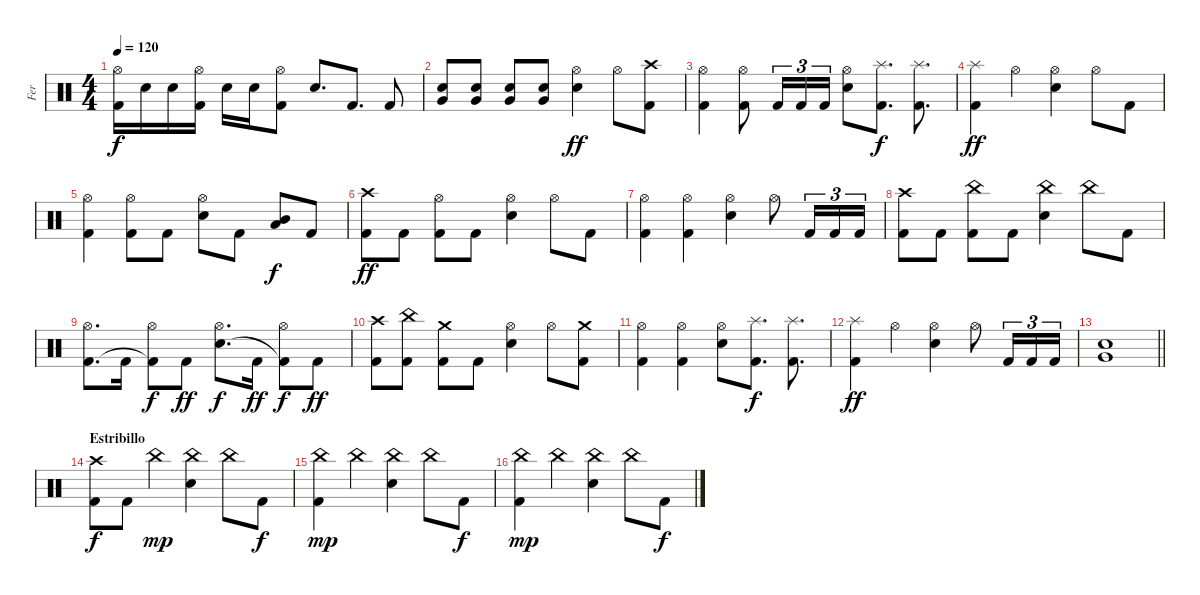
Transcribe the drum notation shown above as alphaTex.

\track ("Fer" "Fer") {instrument percussion}
\staff {score}
\articulation defaults
\ts (4 4)
\tempo 120
\clef neutral
\ks c
("Hi-Hat (open)" "Kick (hit) 2").16{dy f} "Snare (hit) 2".16 "Snare (hit) 2".16 ("Hi-Hat (open)" "Kick (hit) 2").16 "Snare (hit) 2".16 "Snare (hit) 2".16 ("Hi-Hat (open)" "Kick (hit) 2").8 "Snare (hit) 2".8{d} "Kick (hit) 2".8{d} "Kick (hit) 2".8 |
("Snare (hit) 2" "Very Low Tom (hit)").8 ("Snare (hit) 2" "Very Low Tom (hit)").8 ("Snare (hit) 2" "Very Low Tom (hit)").8 ("Snare (hit) 2" "Very Low Tom (hit)").8 ("Hi-Hat (open)" "Snare (hit) 2").4{dy ff} "Hi-Hat (open)".8 ("Crash high (hit)" "Kick (hit) 2").8 |
("Hi-Hat (open)" "Kick (hit) 2").4 ("Hi-Hat (open)" "Kick (hit) 2").8 "Kick (hit) 2".16{tu (3 2)} "Kick (hit) 2".16{tu (3 2)} "Kick (hit) 2".16{tu (3 2)} ("Hi-Hat (open)" "Snare (hit) 2").8 ("Splash (hit)" "Kick (hit) 2").8{d dy f} ("Splash (hit)" "Kick (hit) 2").8{d} |
("Splash (hit)" "Kick (hit) 2").4{dy ff} "Hi-Hat (open)".4 ("Hi-Hat (open)" "Snare (hit) 2").4 "Hi-Hat (open)".8 "Kick (hit) 2".8 |
("Hi-Hat (open)" "Kick (hit) 2").4 ("Hi-Hat (open)" "Kick (hit) 2").8 "Kick (hit) 2".8 ("Hi-Hat (open)" "Snare (hit) 2").8 "Kick (hit) 2".8 ("Low Tom (hit)" "Mid Tom (hit)").8{bd 240 dy f} "Kick (hit) 2".8 |
("Crash high (hit)" "Kick (hit) 2").8{dy ff} "Kick (hit) 2".8 ("Hi-Hat (open)" "Kick (hit) 2").8 "Kick (hit) 2".8 ("Hi-Hat (open)" "Snare (hit) 2").4 "Hi-Hat (open)".8 "Kick (hit) 2".8 |
("Hi-Hat (open)" "Kick (hit) 2").4 ("Hi-Hat (open)" "Kick (hit) 2").4 ("Hi-Hat (open)" "Snare (hit) 2").4 "Hi-Hat (open)".8 "Kick (hit) 2".16{tu (3 2)} "Kick (hit) 2".16{tu (3 2)} "Kick (hit) 2".16{tu (3 2)} |
("Crash high (hit)" "Kick (hit) 2").8 "Kick (hit) 2".8 ("China (hit)" "Kick (hit) 2").8 "Kick (hit) 2".8 ("China (hit)" "Snare (hit) 2").4 "China (hit)".8 "Kick (hit) 2".8 |
("Hi-Hat (open)" "Kick (hit) 2").8{d} "Kick (hit) 2".16 ("Hi-Hat (open)" "Kick (hit) 2"{t}).8{dy f} "Kick (hit) 2".8{dy ff} ("Hi-Hat (open)" "Snare (hit) 2").8{d dy f} "Kick (hit) 2".16{dy ff} ("Hi-Hat (open)" "Kick (hit) 2"{t}).8{dy f} "Kick (hit) 2".8{dy ff} |
("Crash high (hit)" "Kick (hit) 2").8 ("China (hit)" "Kick (hit) 2").8 ("Crash medium (hit)" "Kick (hit) 2").8 "Kick (hit) 2".8 ("Hi-Hat (open)" "Snare (hit) 2").4 "Hi-Hat (open)".8 ("Crash medium (hit)" "Kick (hit) 2").8 |
("Hi-Hat (open)" "Kick (hit) 2").4 ("Hi-Hat (open)" "Kick (hit) 2").4 ("Hi-Hat (open)" "Snare (hit) 2").8 ("Splash (hit)" "Kick (hit) 2").8{d dy f} ("Splash (hit)" "Kick (hit) 2").8{d} |
("Splash (hit)" "Kick (hit) 2").4{dy ff} "Hi-Hat (open)".4 ("Hi-Hat (open)" "Snare (hit) 2").4 "Hi-Hat (open)".8 "Kick (hit) 2".16{tu (3 2)} "Kick (hit) 2".16{tu (3 2)} "Kick (hit) 2".16{tu (3 2)} |
\barLineRight lightlight
("Snare (hit) 2" "Very Low Tom (hit)").1 |
\section ("" "Estribillo")
("Crash high (hit)" "Kick (hit) 2").8{dy f} "Kick (hit) 2".8 "China (hit)".4{dy mp} ("China (hit)" "Snare (hit) 2").4 "China (hit)".8 "Kick (hit) 2".8{dy f} |
("China (hit)" "Kick (hit) 2").4{dy mp} "China (hit)".4 ("China (hit)" "Snare (hit) 2").4 "China (hit)".8 "Kick (hit) 2".8{dy f} |
("China (hit)" "Kick (hit) 2").4{dy mp} "China (hit)".4 ("China (hit)" "Snare (hit) 2").4 "China (hit)".8 "Kick (hit) 2".8{dy f}
